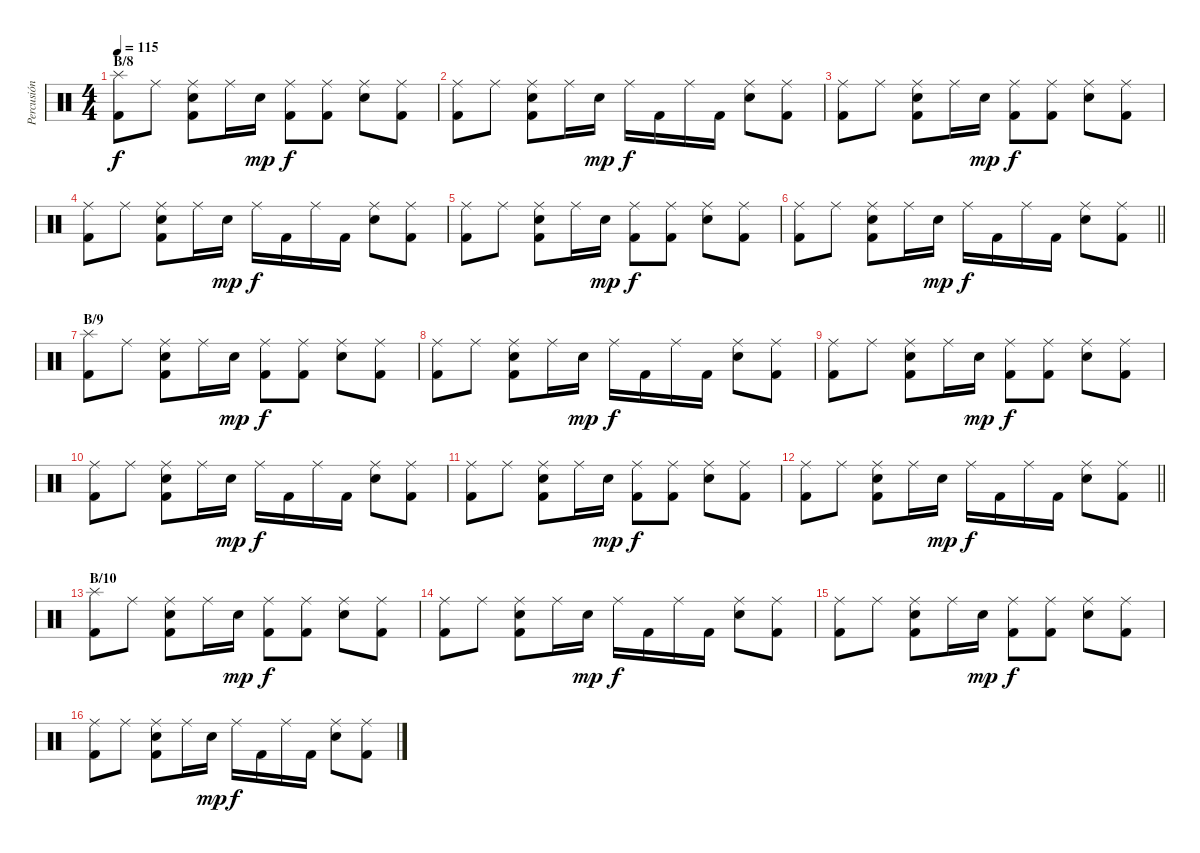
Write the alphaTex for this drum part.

\track ("Percusión" "Percusión") {instrument percussion}
\staff {score}
\articulation defaults
\ts (4 4)
\section ("" "B/8")
\tempo 115
\clef neutral
\ks c
("Splash (hit)" "Kick (hit) 2").8{dy f} "Ride (middle)".8 ("Ride (middle)" "Snare (hit) 2" "Kick (hit) 2").8 "Ride (middle)".16 "Snare (hit) 2".16{dy mp} ("Ride (middle)" "Kick (hit) 2").8{dy f} ("Ride (middle)" "Kick (hit) 2").8 ("Ride (middle)" "Snare (hit) 2").8 ("Ride (middle)" "Kick (hit) 2").8 |
("Ride (middle)" "Kick (hit) 2").8 "Ride (middle)".8 ("Ride (middle)" "Snare (hit) 2" "Kick (hit) 2").8 "Ride (middle)".16 "Snare (hit) 2".16{dy mp} "Ride (middle)".16{dy f} "Kick (hit) 2".16 "Ride (middle)".16 "Kick (hit) 2".16 ("Ride (middle)" "Snare (hit) 2").8 ("Ride (middle)" "Kick (hit) 2").8 |
("Ride (middle)" "Kick (hit) 2").8 "Ride (middle)".8 ("Ride (middle)" "Snare (hit) 2" "Kick (hit) 2").8 "Ride (middle)".16 "Snare (hit) 2".16{dy mp} ("Ride (middle)" "Kick (hit) 2").8{dy f} ("Ride (middle)" "Kick (hit) 2").8 ("Ride (middle)" "Snare (hit) 2").8 ("Ride (middle)" "Kick (hit) 2").8 |
("Ride (middle)" "Kick (hit) 2").8 "Ride (middle)".8 ("Ride (middle)" "Snare (hit) 2" "Kick (hit) 2").8 "Ride (middle)".16 "Snare (hit) 2".16{dy mp} "Ride (middle)".16{dy f} "Kick (hit) 2".16 "Ride (middle)".16 "Kick (hit) 2".16 ("Ride (middle)" "Snare (hit) 2").8 ("Ride (middle)" "Kick (hit) 2").8 |
("Ride (middle)" "Kick (hit) 2").8 "Ride (middle)".8 ("Ride (middle)" "Snare (hit) 2" "Kick (hit) 2").8 "Ride (middle)".16 "Snare (hit) 2".16{dy mp} ("Ride (middle)" "Kick (hit) 2").8{dy f} ("Ride (middle)" "Kick (hit) 2").8 ("Ride (middle)" "Snare (hit) 2").8 ("Ride (middle)" "Kick (hit) 2").8 |
\barLineRight lightlight
("Ride (middle)" "Kick (hit) 2").8 "Ride (middle)".8 ("Ride (middle)" "Snare (hit) 2" "Kick (hit) 2").8 "Ride (middle)".16 "Snare (hit) 2".16{dy mp} "Ride (middle)".16{dy f} "Kick (hit) 2".16 "Ride (middle)".16 "Kick (hit) 2".16 ("Ride (middle)" "Snare (hit) 2").8 ("Ride (middle)" "Kick (hit) 2").8 |
\section ("" "B/9")
("Splash (hit)" "Kick (hit) 2").8 "Ride (middle)".8 ("Ride (middle)" "Snare (hit) 2" "Kick (hit) 2").8 "Ride (middle)".16 "Snare (hit) 2".16{dy mp} ("Ride (middle)" "Kick (hit) 2").8{dy f} ("Ride (middle)" "Kick (hit) 2").8 ("Ride (middle)" "Snare (hit) 2").8 ("Ride (middle)" "Kick (hit) 2").8 |
("Ride (middle)" "Kick (hit) 2").8 "Ride (middle)".8 ("Ride (middle)" "Snare (hit) 2" "Kick (hit) 2").8 "Ride (middle)".16 "Snare (hit) 2".16{dy mp} "Ride (middle)".16{dy f} "Kick (hit) 2".16 "Ride (middle)".16 "Kick (hit) 2".16 ("Ride (middle)" "Snare (hit) 2").8 ("Ride (middle)" "Kick (hit) 2").8 |
("Ride (middle)" "Kick (hit) 2").8 "Ride (middle)".8 ("Ride (middle)" "Snare (hit) 2" "Kick (hit) 2").8 "Ride (middle)".16 "Snare (hit) 2".16{dy mp} ("Ride (middle)" "Kick (hit) 2").8{dy f} ("Ride (middle)" "Kick (hit) 2").8 ("Ride (middle)" "Snare (hit) 2").8 ("Ride (middle)" "Kick (hit) 2").8 |
("Ride (middle)" "Kick (hit) 2").8 "Ride (middle)".8 ("Ride (middle)" "Snare (hit) 2" "Kick (hit) 2").8 "Ride (middle)".16 "Snare (hit) 2".16{dy mp} "Ride (middle)".16{dy f} "Kick (hit) 2".16 "Ride (middle)".16 "Kick (hit) 2".16 ("Ride (middle)" "Snare (hit) 2").8 ("Ride (middle)" "Kick (hit) 2").8 |
("Ride (middle)" "Kick (hit) 2").8 "Ride (middle)".8 ("Ride (middle)" "Snare (hit) 2" "Kick (hit) 2").8 "Ride (middle)".16 "Snare (hit) 2".16{dy mp} ("Ride (middle)" "Kick (hit) 2").8{dy f} ("Ride (middle)" "Kick (hit) 2").8 ("Ride (middle)" "Snare (hit) 2").8 ("Ride (middle)" "Kick (hit) 2").8 |
\barLineRight lightlight
("Ride (middle)" "Kick (hit) 2").8 "Ride (middle)".8 ("Ride (middle)" "Snare (hit) 2" "Kick (hit) 2").8 "Ride (middle)".16 "Snare (hit) 2".16{dy mp} "Ride (middle)".16{dy f} "Kick (hit) 2".16 "Ride (middle)".16 "Kick (hit) 2".16 ("Ride (middle)" "Snare (hit) 2").8 ("Ride (middle)" "Kick (hit) 2").8 |
\section ("" "B/10")
("Splash (hit)" "Kick (hit) 2").8 "Ride (middle)".8 ("Ride (middle)" "Snare (hit) 2" "Kick (hit) 2").8 "Ride (middle)".16 "Snare (hit) 2".16{dy mp} ("Ride (middle)" "Kick (hit) 2").8{dy f} ("Ride (middle)" "Kick (hit) 2").8 ("Ride (middle)" "Snare (hit) 2").8 ("Ride (middle)" "Kick (hit) 2").8 |
("Ride (middle)" "Kick (hit) 2").8 "Ride (middle)".8 ("Ride (middle)" "Snare (hit) 2" "Kick (hit) 2").8 "Ride (middle)".16 "Snare (hit) 2".16{dy mp} "Ride (middle)".16{dy f} "Kick (hit) 2".16 "Ride (middle)".16 "Kick (hit) 2".16 ("Ride (middle)" "Snare (hit) 2").8 ("Ride (middle)" "Kick (hit) 2").8 |
("Ride (middle)" "Kick (hit) 2").8 "Ride (middle)".8 ("Ride (middle)" "Snare (hit) 2" "Kick (hit) 2").8 "Ride (middle)".16 "Snare (hit) 2".16{dy mp} ("Ride (middle)" "Kick (hit) 2").8{dy f} ("Ride (middle)" "Kick (hit) 2").8 ("Ride (middle)" "Snare (hit) 2").8 ("Ride (middle)" "Kick (hit) 2").8 |
("Ride (middle)" "Kick (hit) 2").8 "Ride (middle)".8 ("Ride (middle)" "Snare (hit) 2" "Kick (hit) 2").8 "Ride (middle)".16 "Snare (hit) 2".16{dy mp} "Ride (middle)".16{dy f} "Kick (hit) 2".16 "Ride (middle)".16 "Kick (hit) 2".16 ("Ride (middle)" "Snare (hit) 2").8 ("Ride (middle)" "Kick (hit) 2").8
